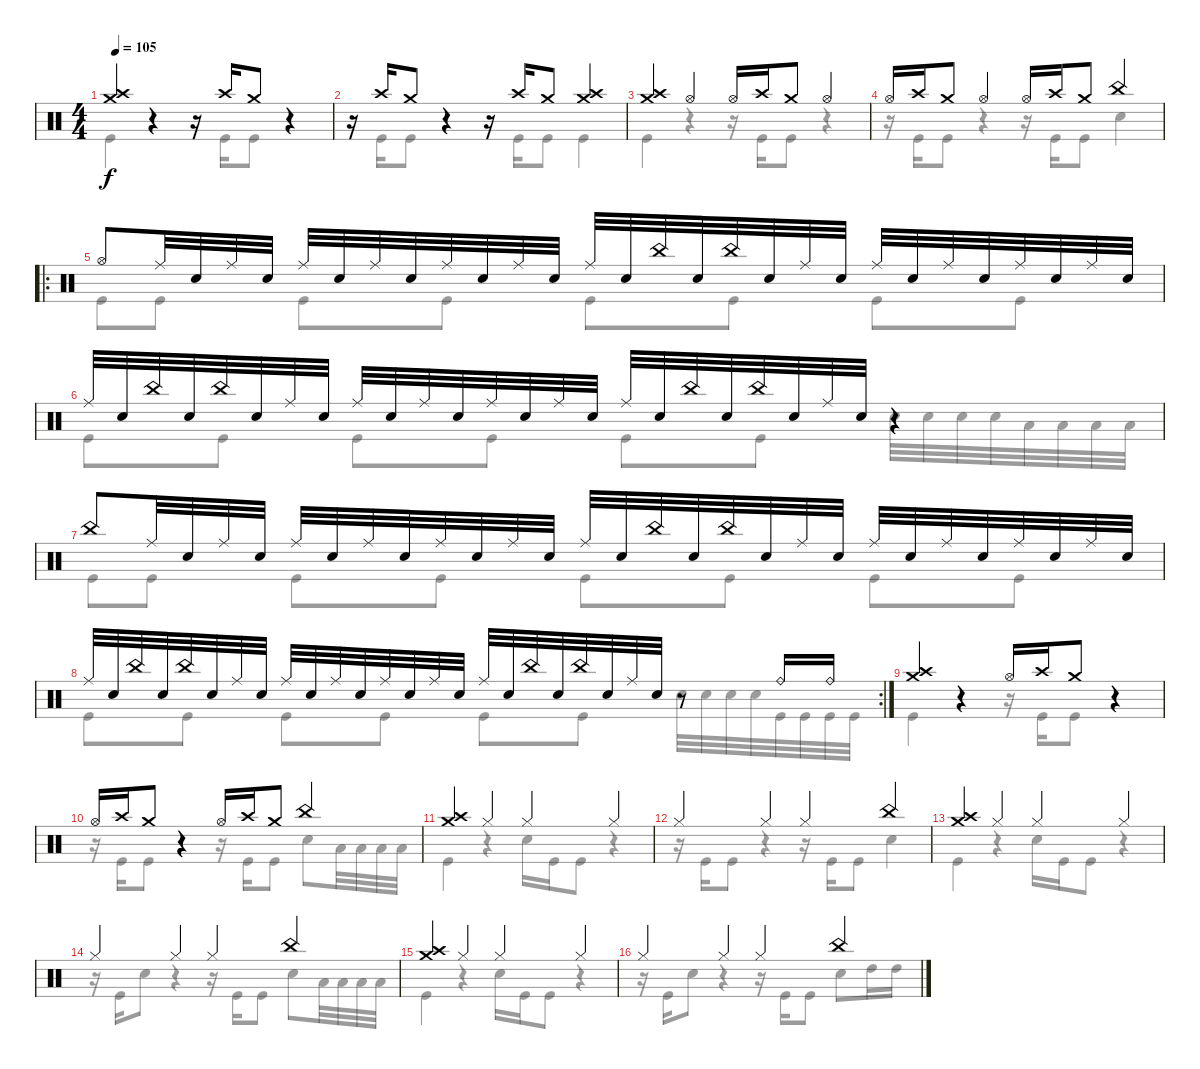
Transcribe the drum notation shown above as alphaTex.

\track "" {instrument percussion}
\staff {score}
\articulation defaults
\voice
\ts (4 4)
\tempo 105
\clef neutral
\ks c
("Crash high (hit)" "Crash medium (hit)").4{dy f} r.4 r.16 "Crash high (hit)".16 "Crash medium (hit)".8 r.4 |
r.16 "Crash high (hit)".16 "Crash medium (hit)".8 r.4 r.16 "Crash high (hit)".16 "Crash medium (hit)".8 ("Crash medium (hit)" "Crash high (hit)").4 |
("Crash high (hit)" "Crash medium (hit)").4 "Hi-Hat (open)".4 "Hi-Hat (open)".16 "Crash high (hit)".16 "Crash medium (hit)".8 "Hi-Hat (open)".4 |
"Hi-Hat (open)".16 "Crash high (hit)".16 "Crash medium (hit)".8 "Hi-Hat (open)".4 "Hi-Hat (open)".16 "Crash high (hit)".16 "Crash medium (hit)".8 "China (hit)".4 |
\ro "Hi-Hat (open)".8 "Ride (middle)".32 "Snare (hit) 2".32 "Ride (middle)".32 "Snare (hit) 2".32 "Ride (middle)".32 "Snare (hit) 2".32 "Ride (middle)".32 "Snare (hit) 2".32 "Ride (middle)".32 "Snare (hit) 2".32 "Ride (middle)".32 "Snare (hit) 2".32 "Ride (middle)".32 "Snare (hit) 2".32 "China (hit)".32 "Snare (hit) 2".32 "China (hit)".32 "Snare (hit) 2".32 "Ride (middle)".32 "Snare (hit) 2".32 "Ride (middle)".32 "Snare (hit) 2".32 "Ride (middle)".32 "Snare (hit) 2".32 "Ride (middle)".32 "Snare (hit) 2".32 "Ride (middle)".32 "Snare (hit) 2".32
|
"Ride (middle)".32 "Snare (hit) 2".32 "China (hit)".32 "Snare (hit) 2".32 "China (hit)".32 "Snare (hit) 2".32 "Ride (middle)".32 "Snare (hit) 2".32 "Ride (middle)".32 "Snare (hit) 2".32 "Ride (middle)".32 "Snare (hit) 2".32 "Ride (middle)".32 "Snare (hit) 2".32 "Ride (middle)".32 "Snare (hit) 2".32 "Ride (middle)".32 "Snare (hit) 2".32 "China (hit)".32 "Snare (hit) 2".32 "China (hit)".32 "Snare (hit) 2".32 "Ride (middle)".32 "Snare (hit) 2".32 r.4 |
"China (hit)".8 "Ride (middle)".32 "Snare (hit) 2".32 "Ride (middle)".32 "Snare (hit) 2".32 "Ride (middle)".32 "Snare (hit) 2".32 "Ride (middle)".32 "Snare (hit) 2".32 "Ride (middle)".32 "Snare (hit) 2".32 "Ride (middle)".32 "Snare (hit) 2".32 "Ride (middle)".32 "Snare (hit) 2".32 "China (hit)".32 "Snare (hit) 2".32 "China (hit)".32 "Snare (hit) 2".32 "Ride (middle)".32 "Snare (hit) 2".32 "Ride (middle)".32 "Snare (hit) 2".32 "Ride (middle)".32 "Snare (hit) 2".32 "Ride (middle)".32 "Snare (hit) 2".32 "Ride (middle)".32 "Snare (hit) 2".32 |
\rc 2 "Ride (middle)".32 "Snare (hit) 2".32 "China (hit)".32 "Snare (hit) 2".32 "China (hit)".32 "Snare (hit) 2".32 "Ride (middle)".32 "Snare (hit) 2".32 "Ride (middle)".32 "Snare (hit) 2".32 "Ride (middle)".32 "Snare (hit) 2".32 "Ride (middle)".32 "Snare (hit) 2".32 "Ride (middle)".32 "Snare (hit) 2".32 "Ride (middle)".32 "Snare (hit) 2".32 "China (hit)".32 "Snare (hit) 2".32 "China (hit)".32 "Snare (hit) 2".32 "Ride (middle)".32 "Snare (hit) 2".32
r.8 "Ride (bell)".16 "Ride (bell)".16 |
("Crash high (hit)" "Crash medium (hit)").4 r.4 "Hi-Hat (open)".16 "Crash high (hit)".16 "Crash medium (hit)".8 r.4 |
"Hi-Hat (open)".16 "Crash high (hit)".16 "Crash medium (hit)".8 r.4 "Hi-Hat (open)".16 "Crash high (hit)".16 "Crash medium (hit)".8 "China (hit)".4 |
("Crash high (hit)" "Crash medium (hit)").4 "Hi-Hat (closed)".4 "Hi-Hat (closed)".4 "Hi-Hat (closed)".4 |
"Hi-Hat (closed)".4 "Hi-Hat (closed)".4 "Hi-Hat (closed)".4 "China (hit)".4 |
("Crash high (hit)" "Crash medium (hit)").4 "Hi-Hat (closed)".4 "Hi-Hat (closed)".4 "Hi-Hat (closed)".4 |
"Hi-Hat (closed)".4 "Hi-Hat (closed)".4 "Hi-Hat (closed)".4 "China (hit)".4 |
("Crash high (hit)" "Crash medium (hit)").4 "Hi-Hat (closed)".4 "Hi-Hat (closed)".4 "Hi-Hat (closed)".4 |
"Hi-Hat (closed)".4 "Hi-Hat (closed)".4 "Hi-Hat (closed)".4 "China (hit)".4
\voice
\clef neutral
\ottava regular
\simile none
\ks c "Kick (hit)".4{dy f}
r.4 r.16 "Kick (hit)".16 "Kick (hit)".8 r.4 |
r.16 "Kick (hit)".16 "Kick (hit)".8 r.4 r.16 "Kick (hit)".16 "Kick (hit)".8 "Kick (hit)".4 |
"Kick (hit)".4 r.4 r.16 "Kick (hit)".16 "Kick (hit)".8 r.4 |
r.16 "Kick (hit)".16 "Kick (hit)".8 r.4 r.16 "Kick (hit)".16 "Kick (hit)".8 "Snare (hit) 2".4 |
"Kick (hit)".8 "Kick (hit)".8 "Kick (hit)".8 "Kick (hit)".8 "Kick (hit)".8 "Kick (hit)".8 "Kick (hit)".8 "Kick (hit)".8 |
"Kick (hit)".8 "Kick (hit)".8 "Kick (hit)".8 "Kick (hit)".8 "Kick (hit)".8 "Kick (hit)".8 "Snare (hit) 2".32 "Snare (hit) 2".32 "Snare (hit) 2".32 "Snare (hit) 2".32 "Low Tom (hit)".32 "Low Tom (hit)".32 "Low Tom (hit)".32 "Low Tom (hit)".32 |
"Kick (hit)".8 "Kick (hit)".8 "Kick (hit)".8 "Kick (hit)".8 "Kick (hit)".8 "Kick (hit)".8 "Kick (hit)".8 "Kick (hit)".8 |
"Kick (hit)".8 "Kick (hit)".8 "Kick (hit)".8 "Kick (hit)".8 "Kick (hit)".8 "Kick (hit)".8 "Snare (hit) 2".32 "Snare (hit) 2".32 "Snare (hit) 2".32 "Snare (hit) 2".32 "Kick (hit)".32 "Kick (hit)".32 "Kick (hit)".32 "Kick (hit)".32 |
"Kick (hit)".4 r.4 r.16 "Kick (hit)".16 "Kick (hit)".8 r.4 |
r.16 "Kick (hit)".16 "Kick (hit)".8 r.4 r.16 "Kick (hit)".16 "Kick (hit)".8 "Snare (hit) 2".8 "Low Tom (hit)".32 "Low Tom (hit)".32 "Low Tom (hit)".32 "Low Tom (hit)".32 |
"Kick (hit)".4 r.4 "Snare (hit) 2".16 "Kick (hit)".16 "Kick (hit)".8 r.4 |
r.16 "Kick (hit)".16 "Kick (hit)".8 r.4 r.16 "Kick (hit)".16 "Kick (hit)".8 "Snare (hit) 2".4 |
"Kick (hit)".4 r.4 "Snare (hit) 2".16 "Kick (hit)".16 "Kick (hit)".8 r.4 |
r.16 "Kick (hit)".16 "Snare (hit) 2".8 r.4 r.16 "Kick (hit)".16 "Kick (hit)".8 "Snare (hit) 2".8 "Low Tom (hit)".32 "Low Tom (hit)".32 "Low Tom (hit)".32 "Low Tom (hit)".32 |
"Kick (hit)".4 r.4 "Snare (hit) 2".16 "Kick (hit)".16 "Kick (hit)".8 r.4 |
r.16 "Kick (hit)".16 "Snare (hit) 2".8 r.4 r.16 "Kick (hit)".16 "Kick (hit)".8 "Snare (hit) 2".8 "High Tom (hit)".16 "High Tom (hit)".16
